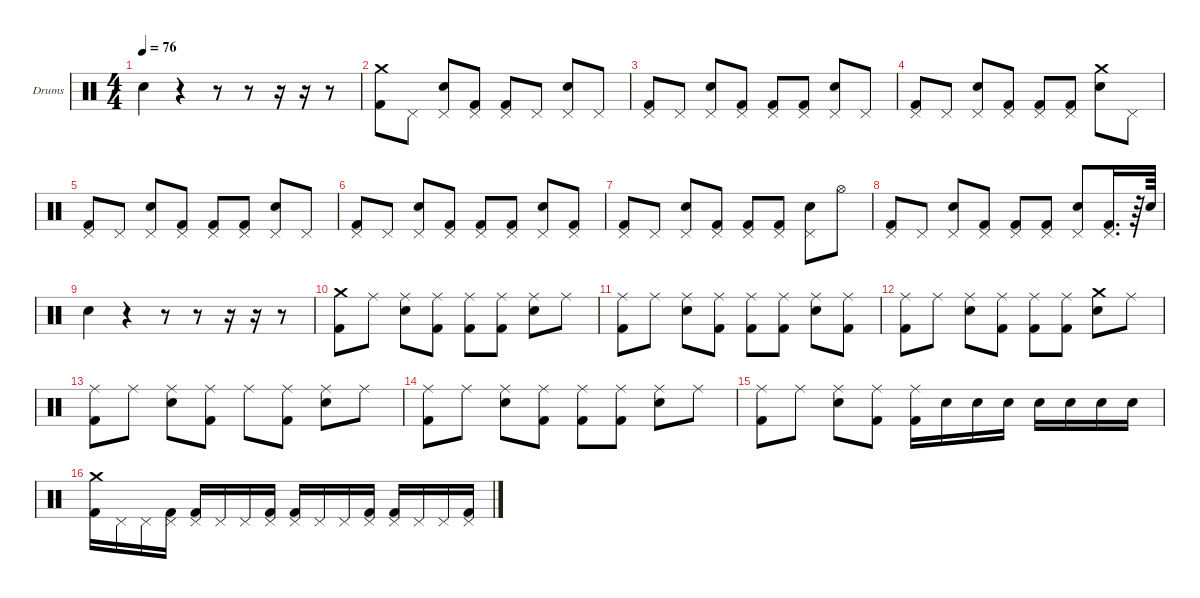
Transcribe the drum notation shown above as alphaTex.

\hideDynamics
\bracketExtendMode nobrackets
\firstSystemTrackNameOrientation horizontal
\otherSystemsTrackNameOrientation horizontal
\track ("Drumkit" "Drums") {instrument percussion}
\staff {score}
\articulation defaults
\ts (4 4)
\tempo 76
\clef neutral
\ks c "Snare (hit) 2".4{dy f beam Down}
r.4{beam Down} r.8{beam Down} r.8{beam Down} r.16{beam Down} r.16{beam Down} r.8{beam Down} |
("Kick (hit) 2" "Crash medium (hit)").8{beam Down} "Pedal Hi-Hat (hit)".8{beam Down} ("Pedal Hi-Hat (hit)" "Snare (hit) 2").8{beam Up} ("Pedal Hi-Hat (hit)" "Kick (hit) 2").8{beam Up} ("Pedal Hi-Hat (hit)" "Kick (hit) 2").8{beam Up} "Pedal Hi-Hat (hit)".8{beam Up} ("Pedal Hi-Hat (hit)" "Snare (hit) 2").8{beam Up} "Pedal Hi-Hat (hit)".8{beam Up} |
("Pedal Hi-Hat (hit)" "Kick (hit) 2").8{beam Up} "Pedal Hi-Hat (hit)".8{beam Up} ("Pedal Hi-Hat (hit)" "Snare (hit) 2").8{beam Up} ("Pedal Hi-Hat (hit)" "Kick (hit) 2").8{beam Up} ("Pedal Hi-Hat (hit)" "Kick (hit) 2").8{beam Up} ("Pedal Hi-Hat (hit)" "Kick (hit) 2").8{beam Up} ("Pedal Hi-Hat (hit)" "Snare (hit) 2").8{beam Up} "Pedal Hi-Hat (hit)".8{beam Up} |
("Pedal Hi-Hat (hit)" "Kick (hit) 2").8{beam Up} "Pedal Hi-Hat (hit)".8{beam Up} ("Pedal Hi-Hat (hit)" "Snare (hit) 2").8{beam Up} ("Pedal Hi-Hat (hit)" "Kick (hit) 2").8{beam Up} ("Pedal Hi-Hat (hit)" "Kick (hit) 2").8{beam Up} ("Pedal Hi-Hat (hit)" "Kick (hit) 2").8{beam Up} ("Snare (hit) 2" "Crash medium (hit)").8{beam Down} "Pedal Hi-Hat (hit)".8{beam Down} |
("Kick (hit) 2" "Pedal Hi-Hat (hit)").8{beam Up} "Pedal Hi-Hat (hit)".8{beam Up} ("Pedal Hi-Hat (hit)" "Snare (hit) 2").8{beam Up} ("Pedal Hi-Hat (hit)" "Kick (hit) 2").8{beam Up} ("Pedal Hi-Hat (hit)" "Kick (hit) 2").8{beam Up} ("Pedal Hi-Hat (hit)" "Kick (hit) 2").8{beam Up} ("Pedal Hi-Hat (hit)" "Snare (hit) 2").8{beam Up} "Pedal Hi-Hat (hit)".8{beam Up} |
("Pedal Hi-Hat (hit)" "Kick (hit) 2").8{beam Up} "Pedal Hi-Hat (hit)".8{beam Up} ("Pedal Hi-Hat (hit)" "Snare (hit) 2").8{beam Up} ("Pedal Hi-Hat (hit)" "Kick (hit) 2").8{beam Up} ("Pedal Hi-Hat (hit)" "Kick (hit) 2").8{beam Up} ("Pedal Hi-Hat (hit)" "Kick (hit) 2").8{beam Up} ("Pedal Hi-Hat (hit)" "Snare (hit) 2").8{beam Up} ("Pedal Hi-Hat (hit)" "Kick (hit) 2").8{beam Up} |
("Kick (hit) 2" "Pedal Hi-Hat (hit)").8{beam Up} "Pedal Hi-Hat (hit)".8{beam Up} ("Pedal Hi-Hat (hit)" "Snare (hit) 2").8{beam Up} ("Pedal Hi-Hat (hit)" "Kick (hit) 2").8{beam Up} ("Pedal Hi-Hat (hit)" "Kick (hit) 2").8{beam Up} ("Pedal Hi-Hat (hit)" "Kick (hit) 2").8{beam Up} ("Pedal Hi-Hat (hit)" "Snare (hit) 2").8{beam Down} "Hi-Hat (open)".8{beam Down} |
("Pedal Hi-Hat (hit)" "Kick (hit) 2").8{beam Up} "Pedal Hi-Hat (hit)".8{beam Up} ("Pedal Hi-Hat (hit)" "Snare (hit) 2").8{beam Up} ("Pedal Hi-Hat (hit)" "Kick (hit) 2").8{beam Up} ("Pedal Hi-Hat (hit)" "Kick (hit) 2").8{beam Up} ("Pedal Hi-Hat (hit)" "Kick (hit) 2").8{beam Up} ("Pedal Hi-Hat (hit)" "Snare (hit) 2").8{beam Up} ("Pedal Hi-Hat (hit)" "Kick (hit) 2").16{d beam Up} r.64{beam Up} "Snare (hit) 2".64{beam Up} |
"Snare (hit) 2".4{beam Down} r.4{beam Down} r.8{beam Down} r.8{beam Down} r.16{beam Down} r.16{beam Down} r.8{beam Down} |
("Kick (hit) 2" "Crash medium (hit)").8{beam Down} "Ride (middle)".8{beam Down} ("Snare (hit) 2" "Ride (middle)").8{beam Down} ("Kick (hit) 2" "Ride (middle)").8{beam Down} ("Kick (hit) 2" "Ride (middle)").8{beam Down} ("Kick (hit) 2" "Ride (middle)").8{beam Down} ("Snare (hit) 2" "Ride (middle)").8{beam Down} "Ride (middle)".8{beam Down} |
("Kick (hit) 2" "Ride (middle)").8{beam Down} "Ride (middle)".8{beam Down} ("Snare (hit) 2" "Ride (middle)").8{beam Down} ("Kick (hit) 2" "Ride (middle)").8{beam Down} ("Kick (hit) 2" "Ride (middle)").8{beam Down} ("Kick (hit) 2" "Ride (middle)").8{beam Down} ("Ride (middle)" "Snare (hit) 2").8{beam Down} ("Ride (middle)" "Kick (hit) 2").8{beam Down} |
("Kick (hit) 2" "Ride (middle)").8{beam Down} "Ride (middle)".8{beam Down} ("Snare (hit) 2" "Ride (middle)").8{beam Down} ("Kick (hit) 2" "Ride (middle)").8{beam Down} ("Kick (hit) 2" "Ride (middle)").8{beam Down} ("Kick (hit) 2" "Ride (middle)").8{beam Down} ("Snare (hit) 2" "Crash medium (hit)").8{beam Down} "Ride (middle)".8{beam Down} |
("Kick (hit) 2" "Ride (middle)").8{beam Down} "Ride (middle)".8{beam Down} ("Snare (hit) 2" "Ride (middle)").8{beam Down} ("Kick (hit) 2" "Ride (middle)").8{beam Down} "Ride (middle)".8{beam Down} ("Kick (hit) 2" "Ride (middle)").8{beam Down} ("Snare (hit) 2" "Ride (middle)").8{beam Down} "Ride (middle)".8{beam Down} |
("Kick (hit) 2" "Ride (middle)").8{beam Down} "Ride (middle)".8{beam Down} ("Snare (hit) 2" "Ride (middle)").8{beam Down} ("Kick (hit) 2" "Ride (middle)").8{beam Down} ("Kick (hit) 2" "Ride (middle)").8{beam Down} ("Kick (hit) 2" "Ride (middle)").8{beam Down} ("Snare (hit) 2" "Ride (middle)").8{beam Down} "Ride (middle)".8{beam Down} |
("Kick (hit) 2" "Ride (middle)").8{beam Down} "Ride (middle)".8{beam Down} ("Snare (hit) 2" "Ride (middle)").8{beam Down} ("Kick (hit) 2" "Ride (middle)").8{beam Down} ("Kick (hit) 2" "Ride (middle)").16{beam Down} "Snare (hit) 2".16{beam Down} "Snare (hit) 2".16{beam Down} "Snare (hit) 2".16{beam Down} "Snare (hit) 2".16{beam Down} "Snare (hit) 2".16{beam Down} "Snare (hit) 2".16{beam Down} "Snare (hit) 2".16{beam Down} |
("Crash medium (hit)" "Kick (hit) 2").16{beam Down} "Pedal Hi-Hat (hit)".16{beam Down} "Pedal Hi-Hat (hit)".16{beam Down} ("Pedal Hi-Hat (hit)" "Kick (hit) 2").16{beam Down} ("Pedal Hi-Hat (hit)" "Kick (hit) 2").16{beam Up} "Pedal Hi-Hat (hit)".16{beam Up} "Pedal Hi-Hat (hit)".16{beam Up} ("Pedal Hi-Hat (hit)" "Kick (hit) 2").16{beam Up} ("Pedal Hi-Hat (hit)" "Kick (hit) 2").16{beam Up} "Pedal Hi-Hat (hit)".16{beam Up} "Pedal Hi-Hat (hit)".16{beam Up} ("Pedal Hi-Hat (hit)" "Kick (hit) 2").16{beam Up} ("Pedal Hi-Hat (hit)" "Kick (hit) 2").16{beam Up} "Pedal Hi-Hat (hit)".16{beam Up} "Pedal Hi-Hat (hit)".16{beam Up} ("Pedal Hi-Hat (hit)" "Kick (hit) 2").16{beam Up}
